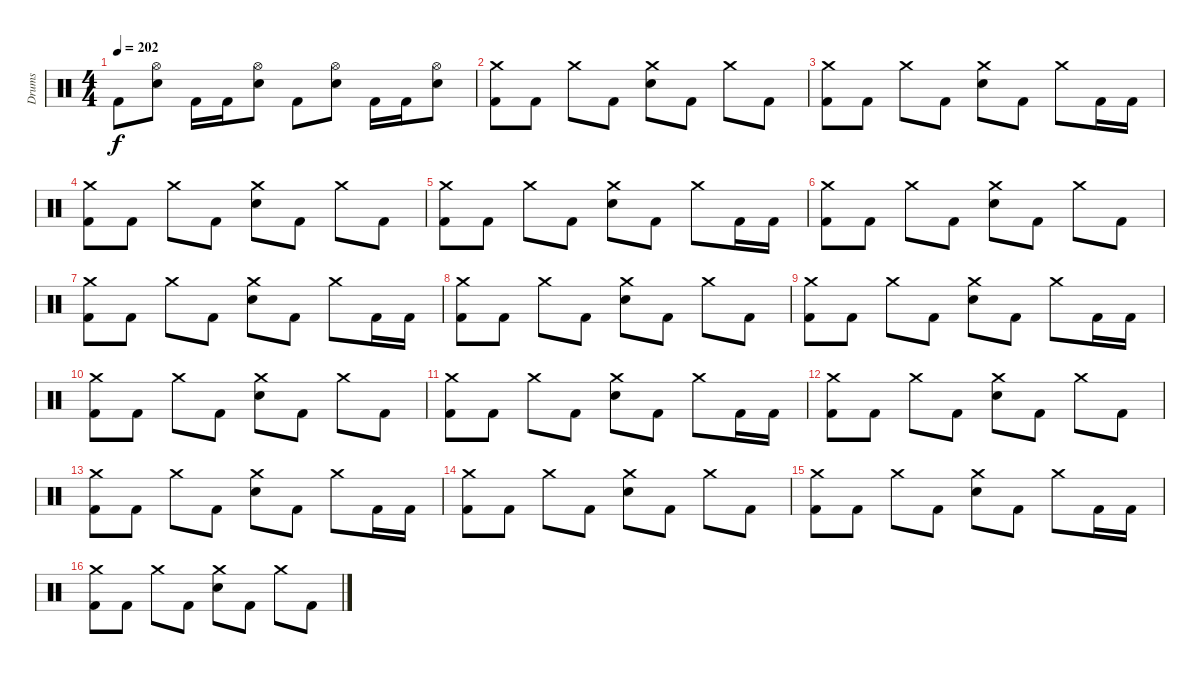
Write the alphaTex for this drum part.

\track ("Drums" "Drums") {instrument percussion}
\staff {score}
\articulation defaults
\ts (4 4)
\tempo 202
\clef neutral
\ks c "Kick (hit) 2".8{dy f}
("Hi-Hat (open)" "Electric Snare (hit)").8 "Kick (hit) 2".16 "Kick (hit) 2".16 ("Hi-Hat (open)" "Electric Snare (hit)").8 "Kick (hit) 2".8 ("Hi-Hat (open)" "Electric Snare (hit)").8 "Kick (hit) 2".16 "Kick (hit) 2".16 ("Hi-Hat (open)" "Electric Snare (hit)").8 |
("Crash medium (hit)" "Kick (hit) 2").8 "Kick (hit) 2".8 "Crash medium (hit)".8 "Kick (hit) 2".8 ("Crash medium (hit)" "Electric Snare (hit)").8 "Kick (hit) 2".8 "Crash medium (hit)".8 "Kick (hit) 2".8 |
("Crash medium (hit)" "Kick (hit) 2").8 "Kick (hit) 2".8 "Crash medium (hit)".8 "Kick (hit) 2".8 ("Crash medium (hit)" "Electric Snare (hit)").8 "Kick (hit) 2".8 "Crash medium (hit)".8 "Kick (hit) 2".16 "Kick (hit) 2".16 |
("Crash medium (hit)" "Kick (hit) 2").8 "Kick (hit) 2".8 "Crash medium (hit)".8 "Kick (hit) 2".8 ("Crash medium (hit)" "Electric Snare (hit)").8 "Kick (hit) 2".8 "Crash medium (hit)".8 "Kick (hit) 2".8 |
("Crash medium (hit)" "Kick (hit) 2").8 "Kick (hit) 2".8 "Crash medium (hit)".8 "Kick (hit) 2".8 ("Crash medium (hit)" "Electric Snare (hit)").8 "Kick (hit) 2".8 "Crash medium (hit)".8 "Kick (hit) 2".16 "Kick (hit) 2".16 |
("Crash medium (hit)" "Kick (hit) 2").8 "Kick (hit) 2".8 "Crash medium (hit)".8 "Kick (hit) 2".8 ("Crash medium (hit)" "Electric Snare (hit)").8 "Kick (hit) 2".8 "Crash medium (hit)".8 "Kick (hit) 2".8 |
("Crash medium (hit)" "Kick (hit) 2").8 "Kick (hit) 2".8 "Crash medium (hit)".8 "Kick (hit) 2".8 ("Crash medium (hit)" "Electric Snare (hit)").8 "Kick (hit) 2".8 "Crash medium (hit)".8 "Kick (hit) 2".16 "Kick (hit) 2".16 |
("Crash medium (hit)" "Kick (hit) 2").8 "Kick (hit) 2".8 "Crash medium (hit)".8 "Kick (hit) 2".8 ("Crash medium (hit)" "Electric Snare (hit)").8 "Kick (hit) 2".8 "Crash medium (hit)".8 "Kick (hit) 2".8 |
("Crash medium (hit)" "Kick (hit) 2").8 "Kick (hit) 2".8 "Crash medium (hit)".8 "Kick (hit) 2".8 ("Crash medium (hit)" "Electric Snare (hit)").8 "Kick (hit) 2".8 "Crash medium (hit)".8 "Kick (hit) 2".16 "Kick (hit) 2".16 |
("Crash medium (hit)" "Kick (hit) 2").8 "Kick (hit) 2".8 "Crash medium (hit)".8 "Kick (hit) 2".8 ("Crash medium (hit)" "Electric Snare (hit)").8 "Kick (hit) 2".8 "Crash medium (hit)".8 "Kick (hit) 2".8 |
("Crash medium (hit)" "Kick (hit) 2").8 "Kick (hit) 2".8 "Crash medium (hit)".8 "Kick (hit) 2".8 ("Crash medium (hit)" "Electric Snare (hit)").8 "Kick (hit) 2".8 "Crash medium (hit)".8 "Kick (hit) 2".16 "Kick (hit) 2".16 |
("Crash medium (hit)" "Kick (hit) 2").8 "Kick (hit) 2".8 "Crash medium (hit)".8 "Kick (hit) 2".8 ("Crash medium (hit)" "Electric Snare (hit)").8 "Kick (hit) 2".8 "Crash medium (hit)".8 "Kick (hit) 2".8 |
("Crash medium (hit)" "Kick (hit) 2").8 "Kick (hit) 2".8 "Crash medium (hit)".8 "Kick (hit) 2".8 ("Crash medium (hit)" "Electric Snare (hit)").8 "Kick (hit) 2".8 "Crash medium (hit)".8 "Kick (hit) 2".16 "Kick (hit) 2".16 |
("Crash medium (hit)" "Kick (hit) 2").8 "Kick (hit) 2".8 "Crash medium (hit)".8 "Kick (hit) 2".8 ("Crash medium (hit)" "Electric Snare (hit)").8 "Kick (hit) 2".8 "Crash medium (hit)".8 "Kick (hit) 2".8 |
("Crash medium (hit)" "Kick (hit) 2").8 "Kick (hit) 2".8 "Crash medium (hit)".8 "Kick (hit) 2".8 ("Crash medium (hit)" "Electric Snare (hit)").8 "Kick (hit) 2".8 "Crash medium (hit)".8 "Kick (hit) 2".16 "Kick (hit) 2".16 |
("Crash medium (hit)" "Kick (hit) 2").8 "Kick (hit) 2".8 "Crash medium (hit)".8 "Kick (hit) 2".8 ("Crash medium (hit)" "Electric Snare (hit)").8 "Kick (hit) 2".8 "Crash medium (hit)".8 "Kick (hit) 2".8
